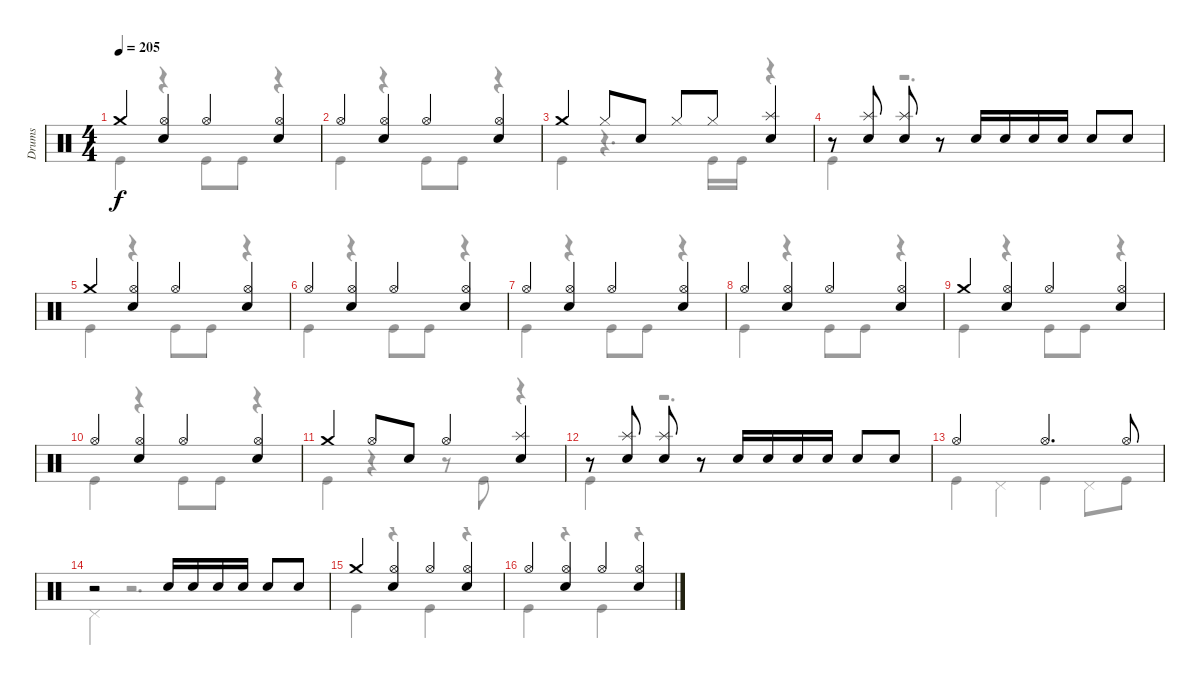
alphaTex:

\track ("Drums" "Drums") {instrument percussion}
\staff {score}
\articulation defaults
\voice
\ts (4 4)
\tempo 205
\clef neutral
\ks c "Crash medium (hit)".4{dy f}
("Hi-Hat (open)" "Snare (hit) 2").4 "Hi-Hat (open)".4 ("Hi-Hat (open)" "Snare (hit) 2").4 |
"Hi-Hat (open)".4 ("Hi-Hat (open)" "Snare (hit) 2").4 "Hi-Hat (open)".4 ("Hi-Hat (open)" "Snare (hit) 2").4 |
"Crash medium (hit)".4 "Hi-Hat (closed)".8 "Snare (hit) 2".8 "Hi-Hat (closed)".8 "Hi-Hat (closed)".8 ("Splash (hit)" "Snare (hit) 2").4 |
r.8 ("Splash (hit)" "Snare (hit) 2").8 ("Splash (hit)" "Snare (hit) 2").8 r.8 "Snare (hit) 2".16 "Snare (hit) 2".16 "Snare (hit) 2".16 "Snare (hit) 2".16 "Snare (hit) 2".8 "Snare (hit) 2".8 |
"Crash medium (hit)".4 ("Hi-Hat (open)" "Snare (hit) 2").4 "Hi-Hat (open)".4 ("Hi-Hat (open)" "Snare (hit) 2").4 |
"Hi-Hat (open)".4 ("Hi-Hat (open)" "Snare (hit) 2").4 "Hi-Hat (open)".4 ("Hi-Hat (open)" "Snare (hit) 2").4 |
"Hi-Hat (open)".4 ("Hi-Hat (open)" "Snare (hit) 2").4 "Hi-Hat (open)".4 ("Hi-Hat (open)" "Snare (hit) 2").4 |
"Hi-Hat (open)".4 ("Hi-Hat (open)" "Snare (hit) 2").4 "Hi-Hat (open)".4 ("Hi-Hat (open)" "Snare (hit) 2").4 |
"Crash medium (hit)".4 ("Hi-Hat (open)" "Snare (hit) 2").4 "Hi-Hat (open)".4 ("Hi-Hat (open)" "Snare (hit) 2").4 |
"Hi-Hat (open)".4 ("Hi-Hat (open)" "Snare (hit) 2").4 "Hi-Hat (open)".4 ("Hi-Hat (open)" "Snare (hit) 2").4 |
"Crash medium (hit)".4 "Hi-Hat (open)".8 "Snare (hit) 2".8 "Hi-Hat (open)".4 ("Splash (hit)" "Snare (hit) 2").4 |
r.8 ("Splash (hit)" "Snare (hit) 2").8 ("Splash (hit)" "Snare (hit) 2").8 r.8 "Snare (hit) 2".16 "Snare (hit) 2".16 "Snare (hit) 2".16 "Snare (hit) 2".16 "Snare (hit) 2".8 "Snare (hit) 2".8 |
"Hi-Hat (open)".2 "Hi-Hat (open)".4{d} "Hi-Hat (open)".8 |
r.2 "Snare (hit) 2".16 "Snare (hit) 2".16 "Snare (hit) 2".16 "Snare (hit) 2".16 "Snare (hit) 2".8 "Snare (hit) 2".8 |
"Crash medium (hit)".4 ("Hi-Hat (open)" "Snare (hit) 2").4 "Hi-Hat (open)".4 ("Hi-Hat (open)" "Snare (hit) 2").4 |
"Hi-Hat (open)".4 ("Hi-Hat (open)" "Snare (hit) 2").4 "Hi-Hat (open)".4 ("Hi-Hat (open)" "Snare (hit) 2").4
\voice
\clef neutral
\ottava regular
\simile none
\ks c "Kick (hit)".4{dy f}
r.4 "Kick (hit)".8 "Kick (hit)".8 r.4 |
"Kick (hit)".4 r.4 "Kick (hit)".8 "Kick (hit)".8 r.4 |
"Kick (hit)".4 r.4{d} "Kick (hit)".16 "Kick (hit)".16 r.4 |
"Kick (hit)".4 r.2{d} |
"Kick (hit)".4 r.4 "Kick (hit)".8 "Kick (hit)".8 r.4 |
"Kick (hit)".4 r.4 "Kick (hit)".8 "Kick (hit)".8 r.4 |
"Kick (hit)".4 r.4 "Kick (hit)".8 "Kick (hit)".8 r.4 |
"Kick (hit)".4 r.4 "Kick (hit)".8 "Kick (hit)".8 r.4 |
"Kick (hit)".4 r.4 "Kick (hit)".8 "Kick (hit)".8 r.4 |
"Kick (hit)".4 r.4 "Kick (hit)".8 "Kick (hit)".8 r.4 |
"Kick (hit)".4 r.4 r.8 "Kick (hit)".8 r.4 |
"Kick (hit)".4 r.2{d} |
"Kick (hit)".4 "Pedal Hi-Hat (hit)".4 "Kick (hit)".4 "Pedal Hi-Hat (hit)".8 "Kick (hit)".8 |
"Pedal Hi-Hat (hit)".4 r.2{d} |
"Kick (hit)".4 r.4 "Kick (hit)".4 r.4 |
"Kick (hit)".4 r.4 "Kick (hit)".4 r.4
